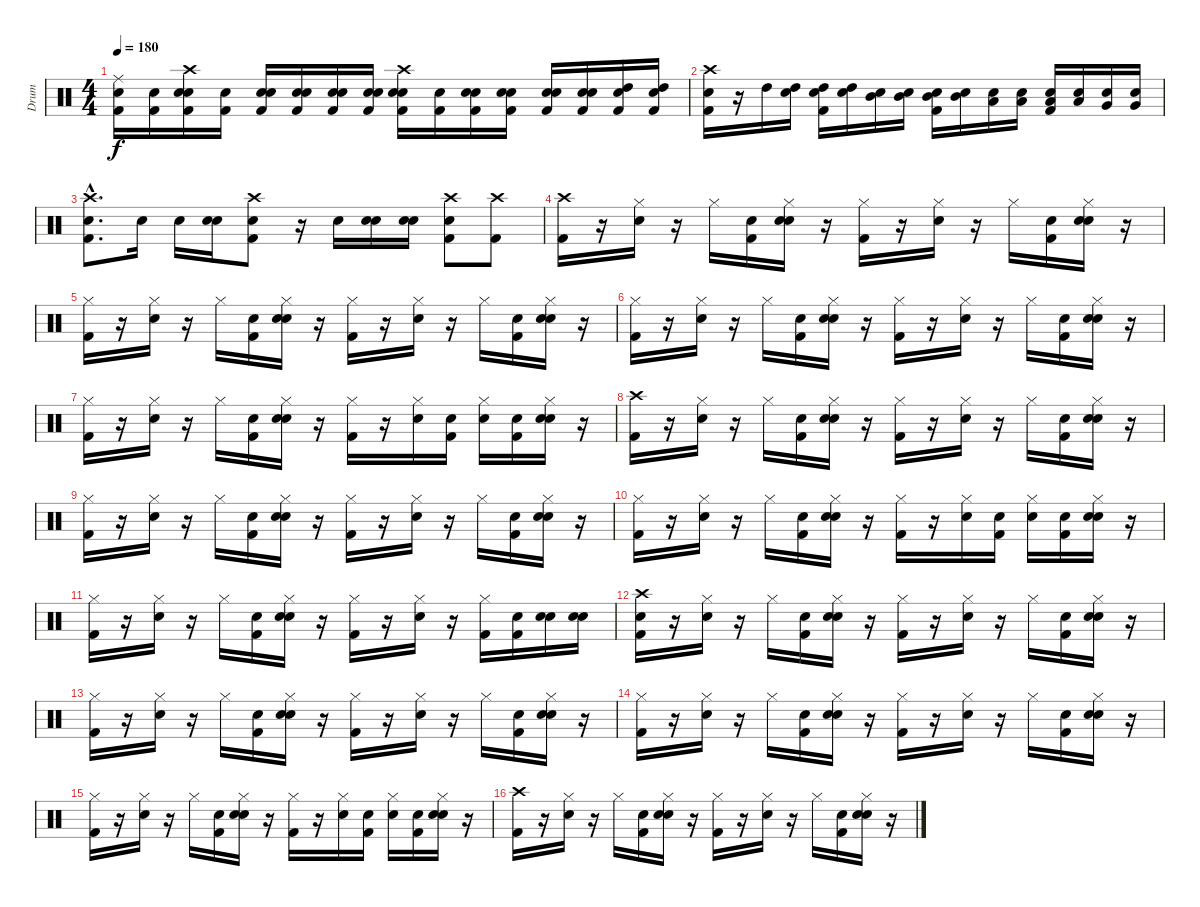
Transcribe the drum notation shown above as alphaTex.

\track ("Drum" "Drum") {instrument percussion}
\staff {score}
\articulation defaults
\ts (4 4)
\tempo 180
\clef neutral
\ks c
("Snare (hit)" "Ride (middle)" "Kick (hit) 2").16{dy f} ("Snare (hit)" "Kick (hit) 2").16 ("Snare (hit)" "Snare (hit) 2" "Crash high (hit)" "Kick (hit) 2").16 ("Snare (hit)" "Kick (hit) 2").16 ("Snare (hit)" "Snare (hit) 2" "Kick (hit) 2").16 ("Snare (hit)" "Snare (hit) 2" "Kick (hit) 2").16 ("Snare (hit)" "Snare (hit) 2" "Kick (hit) 2").16 ("Snare (hit)" "Snare (hit) 2" "Kick (hit) 2").16 ("Snare (hit)" "Crash high (hit)" "Snare (hit) 2" "Kick (hit) 2").16 ("Snare (hit)" "Kick (hit) 2").16 ("Snare (hit)" "Snare (hit) 2" "Kick (hit) 2").16 ("Snare (hit)" "Snare (hit) 2" "Kick (hit) 2").16 ("Snare (hit)" "Snare (hit) 2" "Kick (hit) 2").16 ("Snare (hit)" "Kick (hit) 2" "Snare (hit) 2").16 ("Snare (hit)" "High Tom (hit)" "Kick (hit) 2").16 ("Snare (hit)" "High Tom (hit)" "Kick (hit) 2").16 |
("Snare (hit)" "Crash high (hit)" "Kick (hit) 2").16 r.16 "High Tom (hit)".16 ("Snare (hit)" "High Tom (hit)").16 ("Snare (hit)" "High Tom (hit)" "Kick (hit) 2").16 ("Snare (hit)" "High Tom (hit)").16 ("Snare (hit)" "Mid Tom (hit)").16 ("Snare (hit)" "Mid Tom (hit)").16 ("Snare (hit)" "Mid Tom (hit)" "Kick (hit) 2").16 ("Snare (hit)" "Mid Tom (hit)").16 ("Snare (hit)" "Low Tom (hit)").16 ("Snare (hit)" "Low Tom (hit)").16 ("Snare (hit)" "Low Tom (hit)" "Kick (hit) 2").16 ("Snare (hit)" "Low Tom (hit)").16 ("Snare (hit)" "Very Low Tom (hit)").16 ("Snare (hit)" "Very Low Tom (hit)").16 |
("Snare (hit)"{hac} "Crash high (hit)"{hac} "Kick (hit) 2"{hac}).8{d} "Snare (hit) 2".16 "Snare (hit) 2".16 ("Snare (hit)" "Snare (hit) 2").16 ("Snare (hit)" "Crash high (hit)" "Kick (hit) 2").8 r.16 "Snare (hit) 2".16 ("Snare (hit)" "Snare (hit) 2").16 ("Snare (hit)" "Snare (hit) 2").16 ("Snare (hit)" "Crash high (hit)" "Kick (hit) 2").8 ("Crash high (hit)" "Kick (hit) 2").8 |
("Crash high (hit)" "Kick (hit) 2").16 r.16 ("Snare (hit) 2" "Hi-Hat (closed)").16 r.16 "Hi-Hat (closed)".16 ("Snare (hit)" "Kick (hit) 2").16 ("Snare (hit)" "Snare (hit) 2" "Hi-Hat (closed)").16 r.16 ("Kick (hit) 2" "Hi-Hat (closed)").16 r.16 ("Snare (hit) 2" "Hi-Hat (closed)").16 r.16 "Hi-Hat (closed)".16 ("Snare (hit)" "Kick (hit) 2").16 ("Snare (hit)" "Snare (hit) 2" "Hi-Hat (closed)").16 r.16 |
("Kick (hit) 2" "Hi-Hat (closed)").16 r.16 ("Snare (hit) 2" "Hi-Hat (closed)").16 r.16 "Hi-Hat (closed)".16 ("Snare (hit)" "Kick (hit) 2").16 ("Snare (hit)" "Snare (hit) 2" "Hi-Hat (closed)").16 r.16 ("Kick (hit) 2" "Hi-Hat (closed)").16 r.16 ("Snare (hit) 2" "Hi-Hat (closed)").16 r.16 "Hi-Hat (closed)".16 ("Snare (hit)" "Kick (hit) 2").16 ("Snare (hit)" "Snare (hit) 2" "Hi-Hat (closed)").16 r.16 |
("Kick (hit) 2" "Hi-Hat (closed)").16 r.16 ("Snare (hit) 2" "Hi-Hat (closed)").16 r.16 "Hi-Hat (closed)".16 ("Snare (hit)" "Kick (hit) 2").16 ("Snare (hit)" "Snare (hit) 2" "Hi-Hat (closed)").16 r.16 ("Kick (hit) 2" "Hi-Hat (closed)").16 r.16 ("Snare (hit) 2" "Hi-Hat (closed)").16 r.16 "Hi-Hat (closed)".16 ("Snare (hit)" "Kick (hit) 2").16 ("Snare (hit)" "Snare (hit) 2" "Hi-Hat (closed)").16 r.16 |
("Kick (hit) 2" "Hi-Hat (closed)").16 r.16 ("Snare (hit) 2" "Hi-Hat (closed)").16 r.16 "Hi-Hat (closed)".16 ("Snare (hit)" "Kick (hit) 2").16 ("Snare (hit)" "Snare (hit) 2" "Hi-Hat (closed)").16 r.16 ("Kick (hit) 2" "Hi-Hat (closed)").16 r.16 ("Snare (hit) 2" "Hi-Hat (closed)").16 ("Snare (hit)" "Kick (hit) 2").16 ("Snare (hit)" "Hi-Hat (closed)").16 ("Snare (hit)" "Kick (hit) 2").16 ("Snare (hit)" "Snare (hit) 2" "Hi-Hat (closed)").16 r.16 |
("Kick (hit) 2" "Crash high (hit)").16 r.16 ("Hi-Hat (closed)" "Snare (hit) 2").16 r.16 "Hi-Hat (closed)".16 ("Snare (hit)" "Kick (hit) 2").16 ("Snare (hit)" "Snare (hit) 2" "Hi-Hat (closed)").16 r.16 ("Kick (hit) 2" "Hi-Hat (closed)").16 r.16 ("Snare (hit) 2" "Hi-Hat (closed)").16 r.16 "Hi-Hat (closed)".16 ("Snare (hit)" "Kick (hit) 2").16 ("Snare (hit)" "Snare (hit) 2" "Hi-Hat (closed)").16 r.16 |
("Kick (hit) 2" "Hi-Hat (closed)").16 r.16 ("Snare (hit) 2" "Hi-Hat (closed)").16 r.16 "Hi-Hat (closed)".16 ("Snare (hit)" "Kick (hit) 2").16 ("Snare (hit)" "Snare (hit) 2" "Hi-Hat (closed)").16 r.16 ("Kick (hit) 2" "Hi-Hat (closed)").16 r.16 ("Snare (hit) 2" "Hi-Hat (closed)").16 r.16 "Hi-Hat (closed)".16 ("Snare (hit)" "Kick (hit) 2").16 ("Snare (hit)" "Snare (hit) 2" "Hi-Hat (closed)").16 r.16 |
("Kick (hit) 2" "Hi-Hat (closed)").16 r.16 ("Snare (hit) 2" "Hi-Hat (closed)").16 r.16 "Hi-Hat (closed)".16 ("Snare (hit)" "Kick (hit) 2").16 ("Snare (hit)" "Snare (hit) 2" "Hi-Hat (closed)").16 r.16 ("Hi-Hat (closed)" "Kick (hit) 2").16 r.16 ("Snare (hit) 2" "Hi-Hat (closed)").16 ("Snare (hit)" "Kick (hit) 2").16 ("Snare (hit)" "Hi-Hat (closed)").16 ("Snare (hit)" "Kick (hit) 2").16 ("Snare (hit)" "Snare (hit) 2" "Hi-Hat (closed)").16 r.16 |
("Kick (hit) 2" "Hi-Hat (closed)").16 r.16 ("Snare (hit) 2" "Hi-Hat (closed)").16 r.16 "Hi-Hat (closed)".16 ("Snare (hit)" "Kick (hit) 2").16 ("Snare (hit)" "Snare (hit) 2" "Hi-Hat (closed)").16 r.16 ("Kick (hit) 2" "Hi-Hat (closed)").16 r.16 ("Snare (hit) 2" "Hi-Hat (closed)").16 r.16 ("Kick (hit) 2" "Hi-Hat (closed)").16 ("Snare (hit)" "Kick (hit) 2").16 ("Snare (hit)" "Snare (hit) 2").16 ("Snare (hit)" "Snare (hit) 2").16 |
("Snare (hit)" "Kick (hit) 2" "Crash high (hit)").16 r.16 ("Snare (hit) 2" "Hi-Hat (closed)").16 r.16 "Hi-Hat (closed)".16 ("Snare (hit)" "Kick (hit) 2").16 ("Snare (hit)" "Snare (hit) 2" "Hi-Hat (closed)").16 r.16 ("Kick (hit) 2" "Hi-Hat (closed)").16 r.16 ("Snare (hit) 2" "Hi-Hat (closed)").16 r.16 "Hi-Hat (closed)".16 ("Snare (hit)" "Kick (hit) 2").16 ("Snare (hit)" "Snare (hit) 2" "Hi-Hat (closed)").16 r.16 |
("Kick (hit) 2" "Hi-Hat (closed)").16 r.16 ("Snare (hit) 2" "Hi-Hat (closed)").16 r.16 "Hi-Hat (closed)".16 ("Snare (hit)" "Kick (hit) 2").16 ("Snare (hit)" "Snare (hit) 2" "Hi-Hat (closed)").16 r.16 ("Kick (hit) 2" "Hi-Hat (closed)").16 r.16 ("Snare (hit) 2" "Hi-Hat (closed)").16 r.16 "Hi-Hat (closed)".16 ("Snare (hit)" "Kick (hit) 2").16 ("Snare (hit)" "Snare (hit) 2" "Hi-Hat (closed)").16 r.16 |
("Kick (hit) 2" "Hi-Hat (closed)").16 r.16 ("Snare (hit) 2" "Hi-Hat (closed)").16 r.16 "Hi-Hat (closed)".16 ("Snare (hit)" "Kick (hit) 2").16 ("Snare (hit)" "Snare (hit) 2" "Hi-Hat (closed)").16 r.16 ("Kick (hit) 2" "Hi-Hat (closed)").16 r.16 ("Snare (hit) 2" "Hi-Hat (closed)").16 r.16 "Hi-Hat (closed)".16 ("Snare (hit)" "Kick (hit) 2").16 ("Snare (hit)" "Snare (hit) 2" "Hi-Hat (closed)").16 r.16 |
("Kick (hit) 2" "Hi-Hat (closed)").16 r.16 ("Snare (hit) 2" "Hi-Hat (closed)").16 r.16 "Hi-Hat (closed)".16 ("Snare (hit)" "Kick (hit) 2").16 ("Snare (hit)" "Snare (hit) 2" "Hi-Hat (closed)").16 r.16 ("Kick (hit) 2" "Hi-Hat (closed)").16 r.16 ("Snare (hit) 2" "Hi-Hat (closed)").16 ("Snare (hit)" "Kick (hit) 2").16 ("Snare (hit)" "Hi-Hat (closed)").16 ("Snare (hit)" "Kick (hit) 2").16 ("Snare (hit)" "Snare (hit) 2" "Hi-Hat (closed)").16 r.16 |
("Kick (hit) 2" "Crash high (hit)").16 r.16 ("Snare (hit) 2" "Hi-Hat (closed)").16 r.16 "Hi-Hat (closed)".16 ("Snare (hit)" "Kick (hit) 2").16 ("Snare (hit)" "Snare (hit) 2" "Hi-Hat (closed)").16 r.16 ("Kick (hit) 2" "Hi-Hat (closed)").16 r.16 ("Snare (hit) 2" "Hi-Hat (closed)").16 r.16 "Hi-Hat (closed)".16 ("Snare (hit)" "Kick (hit) 2").16 ("Snare (hit)" "Snare (hit) 2" "Hi-Hat (closed)").16 r.16
